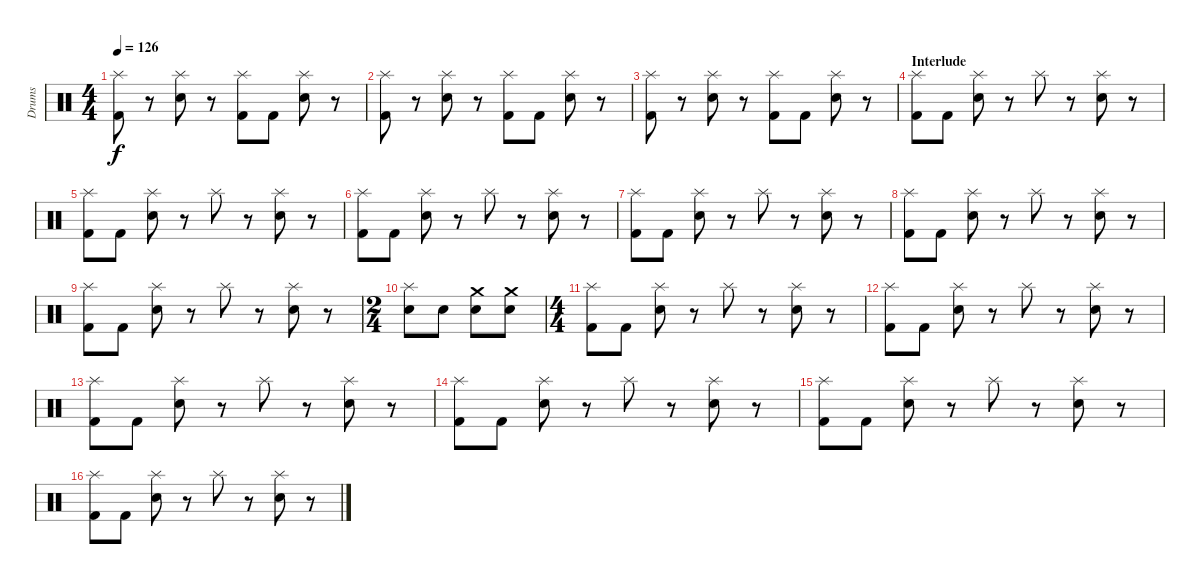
\track ("Drums" "Drums") {instrument percussion}
\staff {score}
\articulation defaults
\ts (4 4)
\tempo 126
\clef neutral
\ks c
("Splash (hit)" "Kick (hit) 2").8{dy f} r.8 ("Splash (hit)" "Snare (hit) 2").8 r.8 ("Splash (hit)" "Kick (hit) 2").8 "Kick (hit) 2".8 ("Splash (hit)" "Snare (hit) 2").8 r.8 |
("Splash (hit)" "Kick (hit) 2").8 r.8 ("Splash (hit)" "Snare (hit) 2").8 r.8 ("Splash (hit)" "Kick (hit) 2").8 "Kick (hit) 2".8 ("Splash (hit)" "Snare (hit) 2").8 r.8 |
("Splash (hit)" "Kick (hit) 2").8 r.8 ("Splash (hit)" "Snare (hit) 2").8 r.8 ("Splash (hit)" "Kick (hit) 2").8 "Kick (hit) 2".8 ("Splash (hit)" "Snare (hit) 2").8 r.8 |
\section ("" "Interlude")
("Splash (hit)" "Kick (hit) 2").8 "Kick (hit) 2".8 ("Splash (hit)" "Snare (hit) 2").8 r.8 "Splash (hit)".8 r.8 ("Splash (hit)" "Snare (hit) 2").8 r.8 |
("Splash (hit)" "Kick (hit) 2").8 "Kick (hit) 2".8 ("Splash (hit)" "Snare (hit) 2").8 r.8 "Splash (hit)".8 r.8 ("Splash (hit)" "Snare (hit) 2").8 r.8 |
("Splash (hit)" "Kick (hit) 2").8 "Kick (hit) 2".8 ("Splash (hit)" "Snare (hit) 2").8 r.8 "Splash (hit)".8 r.8 ("Splash (hit)" "Snare (hit) 2").8 r.8 |
("Splash (hit)" "Kick (hit) 2").8 "Kick (hit) 2".8 ("Splash (hit)" "Snare (hit) 2").8 r.8 "Splash (hit)".8 r.8 ("Splash (hit)" "Snare (hit) 2").8 r.8 |
("Splash (hit)" "Kick (hit) 2").8 "Kick (hit) 2".8 ("Splash (hit)" "Snare (hit) 2").8 r.8 "Splash (hit)".8 r.8 ("Splash (hit)" "Snare (hit) 2").8 r.8 |
("Splash (hit)" "Kick (hit) 2").8 "Kick (hit) 2".8 ("Splash (hit)" "Snare (hit) 2").8 r.8 "Splash (hit)".8 r.8 ("Splash (hit)" "Snare (hit) 2").8 r.8 |
\ts (2 4)
("Splash (hit)" "Snare (hit) 2").8 "Snare (hit) 2".8 ("Crash medium (hit)" "Snare (hit) 2").8 ("Crash medium (hit)" "Snare (hit) 2").8 |
\ts (4 4)
("Splash (hit)" "Kick (hit) 2").8 "Kick (hit) 2".8 ("Splash (hit)" "Snare (hit) 2").8 r.8 "Splash (hit)".8 r.8 ("Splash (hit)" "Snare (hit) 2").8 r.8 |
("Splash (hit)" "Kick (hit) 2").8 "Kick (hit) 2".8 ("Splash (hit)" "Snare (hit) 2").8 r.8 "Splash (hit)".8 r.8 ("Splash (hit)" "Snare (hit) 2").8 r.8 |
("Splash (hit)" "Kick (hit) 2").8 "Kick (hit) 2".8 ("Splash (hit)" "Snare (hit) 2").8 r.8 "Splash (hit)".8 r.8 ("Splash (hit)" "Snare (hit) 2").8 r.8 |
("Splash (hit)" "Kick (hit) 2").8 "Kick (hit) 2".8 ("Splash (hit)" "Snare (hit) 2").8 r.8 "Splash (hit)".8 r.8 ("Splash (hit)" "Snare (hit) 2").8 r.8 |
("Splash (hit)" "Kick (hit) 2").8 "Kick (hit) 2".8 ("Splash (hit)" "Snare (hit) 2").8 r.8 "Splash (hit)".8 r.8 ("Splash (hit)" "Snare (hit) 2").8 r.8 |
("Splash (hit)" "Kick (hit) 2").8 "Kick (hit) 2".8 ("Splash (hit)" "Snare (hit) 2").8 r.8 "Splash (hit)".8 r.8 ("Splash (hit)" "Snare (hit) 2").8 r.8
